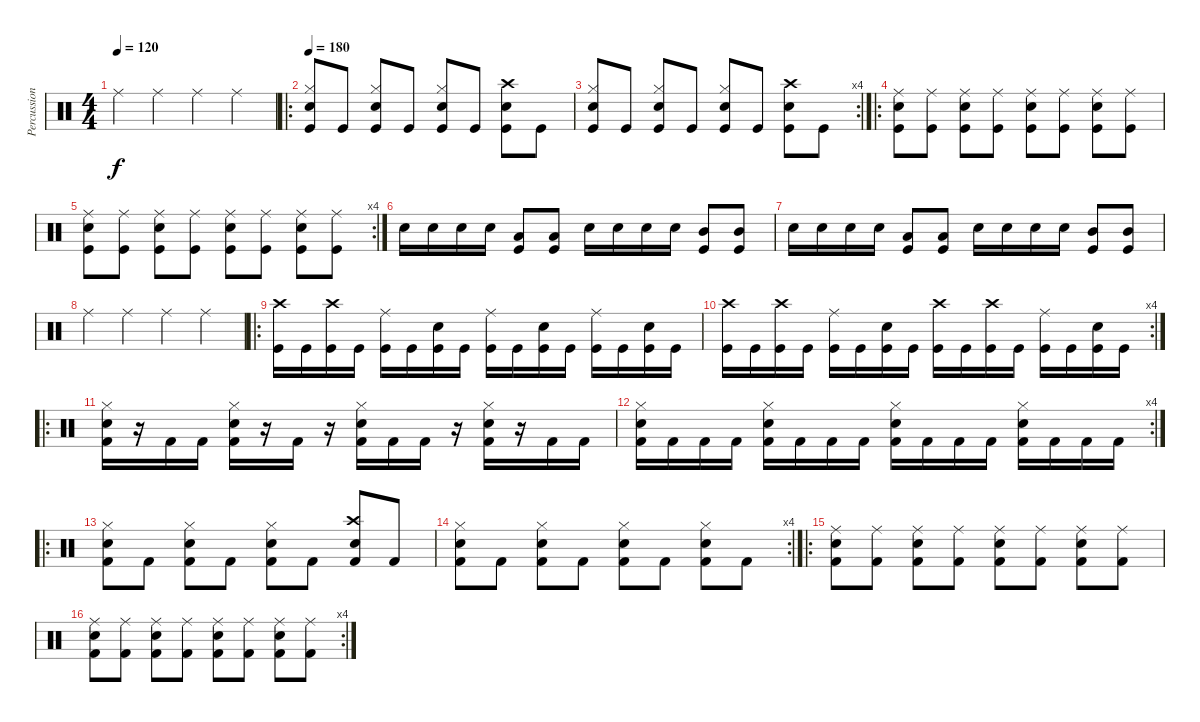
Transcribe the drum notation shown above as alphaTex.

\track ("Percussions" "Percussion") {instrument percussion}
\staff {score}
\articulation defaults
\ts (4 4)
\tempo 120
\clef neutral
\ks c "Ride (middle)".4{dy f} "Ride (middle)".4 "Ride (middle)".4 "Ride (middle)".4
|
\ro
\tempo 180
("Kick (hit)" "Hi-Hat (closed)" "Electric Snare (hit)").8 "Kick (hit)".8 ("Kick (hit)" "Hi-Hat (closed)" "Electric Snare (hit)").8 "Kick (hit)".8 ("Kick (hit)" "Hi-Hat (closed)" "Electric Snare (hit)").8 "Kick (hit)".8 ("Kick (hit)" "Electric Snare (hit)" "Crash high (hit)").8 "Kick (hit)".8 |
\rc 4
("Kick (hit)" "Hi-Hat (closed)" "Electric Snare (hit)").8 "Kick (hit)".8 ("Kick (hit)" "Hi-Hat (closed)" "Electric Snare (hit)").8 "Kick (hit)".8 ("Kick (hit)" "Hi-Hat (closed)" "Electric Snare (hit)").8 "Kick (hit)".8 ("Kick (hit)" "Electric Snare (hit)" "Crash high (hit)").8 "Kick (hit)".8 |
\ro
("Kick (hit)" "Ride (middle)" "Electric Snare (hit)").8 ("Kick (hit)" "Ride (middle)").8 ("Kick (hit)" "Ride (middle)" "Electric Snare (hit)").8 ("Kick (hit)" "Ride (middle)").8 ("Kick (hit)" "Ride (middle)" "Electric Snare (hit)").8 ("Kick (hit)" "Ride (middle)").8 ("Kick (hit)" "Ride (middle)" "Electric Snare (hit)").8 ("Kick (hit)" "Ride (middle)").8 |
\rc 4
("Kick (hit)" "Ride (middle)" "Electric Snare (hit)").8 ("Kick (hit)" "Ride (middle)").8 ("Kick (hit)" "Ride (middle)" "Electric Snare (hit)").8 ("Kick (hit)" "Ride (middle)").8 ("Kick (hit)" "Ride (middle)" "Electric Snare (hit)").8 ("Kick (hit)" "Ride (middle)").8 ("Kick (hit)" "Ride (middle)" "Electric Snare (hit)").8 ("Kick (hit)" "Ride (middle)").8 |
"Electric Snare (hit)".16 "Electric Snare (hit)".16 "Electric Snare (hit)".16 "Electric Snare (hit)".16 ("Kick (hit)" "Low Tom (hit)").8 ("Kick (hit)" "Low Tom (hit)").8 "Electric Snare (hit)".16 "Electric Snare (hit)".16 "Electric Snare (hit)".16 "Electric Snare (hit)".16 ("Kick (hit)" "Mid Tom (hit)").8 ("Kick (hit)" "Mid Tom (hit)").8 |
"Electric Snare (hit)".16 "Electric Snare (hit)".16 "Electric Snare (hit)".16 "Electric Snare (hit)".16 ("Kick (hit)" "Low Tom (hit)").8 ("Kick (hit)" "Low Tom (hit)").8 "Electric Snare (hit)".16 "Electric Snare (hit)".16 "Electric Snare (hit)".16 "Electric Snare (hit)".16 ("Kick (hit)" "Mid Tom (hit)").8 ("Kick (hit)" "Mid Tom (hit)").8 |
"Ride (middle)".4 "Ride (middle)".4 "Ride (middle)".4 "Ride (middle)".4 |
\ro
("Kick (hit)" "Crash high (hit)").16 "Kick (hit)".16 ("Kick (hit)" "Crash high (hit)").16 "Kick (hit)".16 ("Kick (hit)" "Ride (middle)").16 "Kick (hit)".16 ("Kick (hit)" "Electric Snare (hit)").16 "Kick (hit)".16 ("Kick (hit)" "Ride (middle)").16 "Kick (hit)".16 ("Kick (hit)" "Electric Snare (hit)").16 "Kick (hit)".16 ("Kick (hit)" "Ride (middle)").16 "Kick (hit)".16 ("Kick (hit)" "Electric Snare (hit)").16 "Kick (hit)".16 |
\rc 4
("Kick (hit)" "Crash high (hit)").16 "Kick (hit)".16 ("Kick (hit)" "Crash high (hit)").16 "Kick (hit)".16 ("Kick (hit)" "Ride (middle)").16 "Kick (hit)".16 ("Kick (hit)" "Electric Snare (hit)").16 "Kick (hit)".16 ("Kick (hit)" "Crash high (hit)").16 "Kick (hit)".16 ("Kick (hit)" "Crash high (hit)").16 "Kick (hit)".16 ("Kick (hit)" "Ride (middle)").16 "Kick (hit)".16 ("Kick (hit)" "Electric Snare (hit)").16 "Kick (hit)".16 |
\ro
("Kick (hit) 2" "Electric Snare (hit)" "Hi-Hat (closed)").16 r.16 "Kick (hit) 2".16 "Kick (hit) 2".16 ("Kick (hit) 2" "Electric Snare (hit)" "Hi-Hat (closed)").16 r.16 "Kick (hit) 2".16 r.16 ("Kick (hit) 2" "Electric Snare (hit)" "Hi-Hat (closed)").16 "Kick (hit) 2".16 "Kick (hit) 2".16 r.16 ("Kick (hit) 2" "Electric Snare (hit)" "Hi-Hat (closed)").16 r.16 "Kick (hit) 2".16 "Kick (hit) 2".16 |
\rc 4
("Kick (hit) 2" "Electric Snare (hit)" "Hi-Hat (closed)").16 "Kick (hit) 2".16 "Kick (hit) 2".16 "Kick (hit) 2".16 ("Kick (hit) 2" "Electric Snare (hit)" "Hi-Hat (closed)").16 "Kick (hit) 2".16 "Kick (hit) 2".16 "Kick (hit) 2".16 ("Kick (hit) 2" "Electric Snare (hit)" "Hi-Hat (closed)").16 "Kick (hit) 2".16 "Kick (hit) 2".16 "Kick (hit) 2".16 ("Kick (hit) 2" "Electric Snare (hit)" "Hi-Hat (closed)").16 "Kick (hit) 2".16 "Kick (hit) 2".16 "Kick (hit) 2".16 |
\ro
("Kick (hit) 2" "Hi-Hat (closed)" "Electric Snare (hit)").8 "Kick (hit) 2".8 ("Kick (hit) 2" "Hi-Hat (closed)" "Electric Snare (hit)").8 "Kick (hit) 2".8 ("Kick (hit) 2" "Hi-Hat (closed)" "Electric Snare (hit)").8 "Kick (hit) 2".8 ("Kick (hit) 2" "Electric Snare (hit)" "Crash high (hit)").8 "Kick (hit) 2".8 |
\rc 4
("Kick (hit) 2" "Hi-Hat (closed)" "Electric Snare (hit)").8 "Kick (hit) 2".8 ("Kick (hit) 2" "Hi-Hat (closed)" "Electric Snare (hit)").8 "Kick (hit) 2".8 ("Kick (hit) 2" "Hi-Hat (closed)" "Electric Snare (hit)").8 "Kick (hit) 2".8 ("Kick (hit) 2" "Electric Snare (hit)" "Hi-Hat (closed)").8 "Kick (hit) 2".8 |
\ro
("Kick (hit) 2" "Ride (middle)" "Electric Snare (hit)").8 ("Kick (hit) 2" "Ride (middle)").8 ("Kick (hit) 2" "Ride (middle)" "Electric Snare (hit)").8 ("Kick (hit) 2" "Ride (middle)").8 ("Kick (hit) 2" "Ride (middle)" "Electric Snare (hit)").8 ("Kick (hit) 2" "Ride (middle)").8 ("Kick (hit) 2" "Ride (middle)" "Electric Snare (hit)").8 ("Kick (hit) 2" "Ride (middle)").8 |
\rc 4
("Kick (hit) 2" "Ride (middle)" "Electric Snare (hit)").8 ("Kick (hit) 2" "Ride (middle)").8 ("Kick (hit) 2" "Ride (middle)" "Electric Snare (hit)").8 ("Kick (hit) 2" "Ride (middle)").8 ("Kick (hit) 2" "Ride (middle)" "Electric Snare (hit)").8 ("Kick (hit) 2" "Ride (middle)").8 ("Kick (hit) 2" "Ride (middle)" "Electric Snare (hit)").8 ("Kick (hit) 2" "Ride (middle)").8
